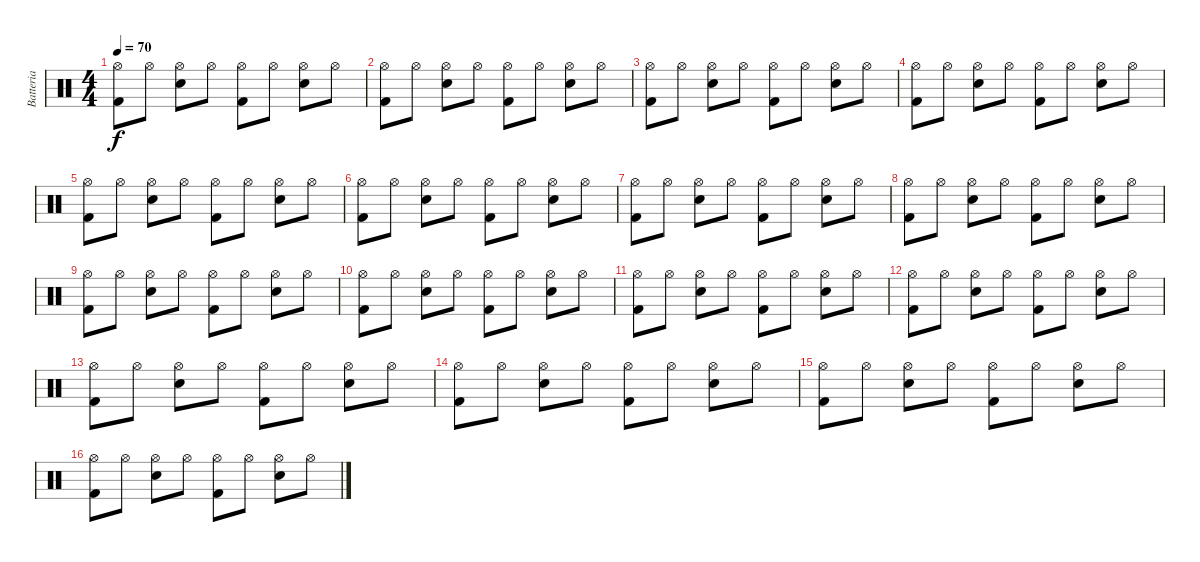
\track ("Batteria" "Batteria") {instrument percussion}
\staff {score}
\articulation defaults
\ts (4 4)
\tempo 70
\clef neutral
\ks c
("Kick (hit) 2" "Hi-Hat (open)").8{dy f} "Hi-Hat (open)".8 ("Electric Snare (hit)" "Hi-Hat (open)").8 "Hi-Hat (open)".8 ("Kick (hit) 2" "Hi-Hat (open)").8 "Hi-Hat (open)".8 ("Electric Snare (hit)" "Hi-Hat (open)").8 "Hi-Hat (open)".8 |
("Kick (hit) 2" "Hi-Hat (open)").8 "Hi-Hat (open)".8 ("Electric Snare (hit)" "Hi-Hat (open)").8 "Hi-Hat (open)".8 ("Kick (hit) 2" "Hi-Hat (open)").8 "Hi-Hat (open)".8 ("Electric Snare (hit)" "Hi-Hat (open)").8 "Hi-Hat (open)".8 |
("Kick (hit) 2" "Hi-Hat (open)").8 "Hi-Hat (open)".8 ("Electric Snare (hit)" "Hi-Hat (open)").8 "Hi-Hat (open)".8 ("Kick (hit) 2" "Hi-Hat (open)").8 "Hi-Hat (open)".8 ("Electric Snare (hit)" "Hi-Hat (open)").8 "Hi-Hat (open)".8 |
("Kick (hit) 2" "Hi-Hat (open)").8 "Hi-Hat (open)".8 ("Electric Snare (hit)" "Hi-Hat (open)").8 "Hi-Hat (open)".8 ("Kick (hit) 2" "Hi-Hat (open)").8 "Hi-Hat (open)".8 ("Electric Snare (hit)" "Hi-Hat (open)").8 "Hi-Hat (open)".8 |
("Kick (hit) 2" "Hi-Hat (open)").8 "Hi-Hat (open)".8 ("Electric Snare (hit)" "Hi-Hat (open)").8 "Hi-Hat (open)".8 ("Kick (hit) 2" "Hi-Hat (open)").8 "Hi-Hat (open)".8 ("Electric Snare (hit)" "Hi-Hat (open)").8 "Hi-Hat (open)".8 |
("Kick (hit) 2" "Hi-Hat (open)").8 "Hi-Hat (open)".8 ("Electric Snare (hit)" "Hi-Hat (open)").8 "Hi-Hat (open)".8 ("Kick (hit) 2" "Hi-Hat (open)").8 "Hi-Hat (open)".8 ("Electric Snare (hit)" "Hi-Hat (open)").8 "Hi-Hat (open)".8 |
("Kick (hit) 2" "Hi-Hat (open)").8 "Hi-Hat (open)".8 ("Electric Snare (hit)" "Hi-Hat (open)").8 "Hi-Hat (open)".8 ("Kick (hit) 2" "Hi-Hat (open)").8 "Hi-Hat (open)".8 ("Electric Snare (hit)" "Hi-Hat (open)").8 "Hi-Hat (open)".8 |
("Kick (hit) 2" "Hi-Hat (open)").8 "Hi-Hat (open)".8 ("Electric Snare (hit)" "Hi-Hat (open)").8 "Hi-Hat (open)".8 ("Kick (hit) 2" "Hi-Hat (open)").8 "Hi-Hat (open)".8 ("Electric Snare (hit)" "Hi-Hat (open)").8 "Hi-Hat (open)".8 |
("Kick (hit) 2" "Hi-Hat (open)").8 "Hi-Hat (open)".8 ("Electric Snare (hit)" "Hi-Hat (open)").8 "Hi-Hat (open)".8 ("Kick (hit) 2" "Hi-Hat (open)").8 "Hi-Hat (open)".8 ("Electric Snare (hit)" "Hi-Hat (open)").8 "Hi-Hat (open)".8 |
("Kick (hit) 2" "Hi-Hat (open)").8 "Hi-Hat (open)".8 ("Electric Snare (hit)" "Hi-Hat (open)").8 "Hi-Hat (open)".8 ("Kick (hit) 2" "Hi-Hat (open)").8 "Hi-Hat (open)".8 ("Electric Snare (hit)" "Hi-Hat (open)").8 "Hi-Hat (open)".8 |
("Kick (hit) 2" "Hi-Hat (open)").8 "Hi-Hat (open)".8 ("Electric Snare (hit)" "Hi-Hat (open)").8 "Hi-Hat (open)".8 ("Kick (hit) 2" "Hi-Hat (open)").8 "Hi-Hat (open)".8 ("Electric Snare (hit)" "Hi-Hat (open)").8 "Hi-Hat (open)".8 |
("Kick (hit) 2" "Hi-Hat (open)").8 "Hi-Hat (open)".8 ("Electric Snare (hit)" "Hi-Hat (open)").8 "Hi-Hat (open)".8 ("Kick (hit) 2" "Hi-Hat (open)").8 "Hi-Hat (open)".8 ("Electric Snare (hit)" "Hi-Hat (open)").8 "Hi-Hat (open)".8 |
("Kick (hit) 2" "Hi-Hat (open)").8 "Hi-Hat (open)".8 ("Electric Snare (hit)" "Hi-Hat (open)").8 "Hi-Hat (open)".8 ("Kick (hit) 2" "Hi-Hat (open)").8 "Hi-Hat (open)".8 ("Electric Snare (hit)" "Hi-Hat (open)").8 "Hi-Hat (open)".8 |
("Kick (hit) 2" "Hi-Hat (open)").8 "Hi-Hat (open)".8 ("Electric Snare (hit)" "Hi-Hat (open)").8 "Hi-Hat (open)".8 ("Kick (hit) 2" "Hi-Hat (open)").8 "Hi-Hat (open)".8 ("Electric Snare (hit)" "Hi-Hat (open)").8 "Hi-Hat (open)".8 |
("Kick (hit) 2" "Hi-Hat (open)").8 "Hi-Hat (open)".8 ("Electric Snare (hit)" "Hi-Hat (open)").8 "Hi-Hat (open)".8 ("Kick (hit) 2" "Hi-Hat (open)").8 "Hi-Hat (open)".8 ("Electric Snare (hit)" "Hi-Hat (open)").8 "Hi-Hat (open)".8 |
("Kick (hit) 2" "Hi-Hat (open)").8 "Hi-Hat (open)".8 ("Electric Snare (hit)" "Hi-Hat (open)").8 "Hi-Hat (open)".8 ("Kick (hit) 2" "Hi-Hat (open)").8 "Hi-Hat (open)".8 ("Electric Snare (hit)" "Hi-Hat (open)").8 "Hi-Hat (open)".8
